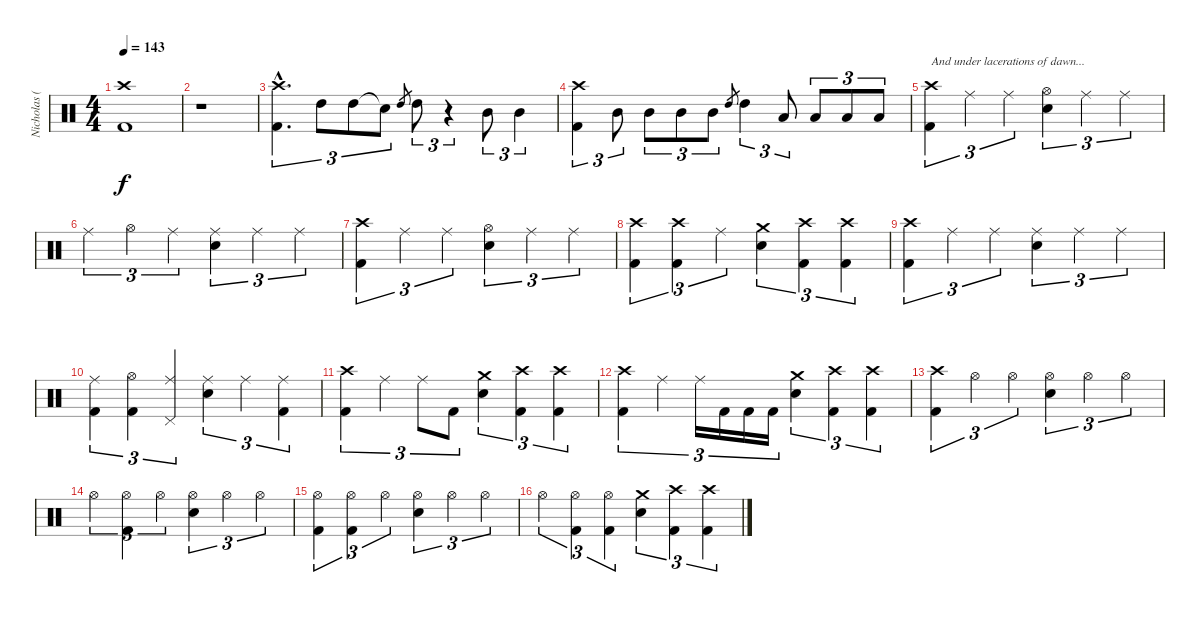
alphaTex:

\track ("Nicholas (Drums)" "Nicholas (") {instrument percussion}
\staff {score}
\articulation defaults
\ts (4 4)
\tempo 143
\clef neutral
\ks c
("Crash high (hit)" "Kick (hit) 2").1{dy f} |
r.1 |
("Crash high (hit)"{hac} "Kick (hit) 2"{hac}).4{d tu (3 2)} "High Tom (hit)".8{tu (3 2)} "High Tom (hit)".8{tu (3 2)} "Snare (hit)"{t}.8{tu (3 2)} "High Tom (hit)".8{gr} "High Tom (hit)".8{tu (3 2)} r.4{tu (3 2)} "Mid Tom (hit)".8{tu (3 2)} "Mid Tom (hit)".4{tu (3 2)} |
("Crash high (hit)" "Kick (hit) 2").4{tu (3 2)} "Mid Tom (hit)".8{tu (3 2)} "Mid Tom (hit)".8{tu (3 2)} "Mid Tom (hit)".8{tu (3 2)} "Mid Tom (hit)".8{tu (3 2)} "High Tom (hit)".8{gr} "High Tom (hit)".4{tu (3 2)} "Low Tom (hit)".8{tu (3 2)} "Low Tom (hit)".8{tu (3 2)} "Low Tom (hit)".8{tu (3 2)} "Low Tom (hit)".8{tu (3 2)} |
("Crash high (hit)" "Kick (hit) 2").4{tu (3 2) txt "And under lacerations of dawn..."} "Ride (middle)".4{tu (3 2)} "Ride (middle)".4{tu (3 2)} ("Hi-Hat (open)" "Electric Snare (hit)").4{tu (3 2)} "Ride (middle)".4{tu (3 2)} "Ride (middle)".4{tu (3 2)} |
"Ride (middle)".4{tu (3 2)} "Hi-Hat (open)".4{tu (3 2)} "Ride (middle)".4{tu (3 2)} ("Ride (middle)" "Electric Snare (hit)").4{tu (3 2)} "Ride (middle)".4{tu (3 2)} "Ride (middle)".4{tu (3 2)} |
("Crash high (hit)" "Kick (hit) 2").4{tu (3 2)} "Ride (middle)".4{tu (3 2)} "Ride (middle)".4{tu (3 2)} ("Hi-Hat (open)" "Electric Snare (hit)").4{tu (3 2)} "Ride (middle)".4{tu (3 2)} "Ride (middle)".4{tu (3 2)} |
("Crash high (hit)" "Kick (hit) 2").4{tu (3 2)} ("Crash high (hit)" "Kick (hit) 2").4{tu (3 2)} "Ride (middle)".4{tu (3 2)} ("Crash medium (hit)" "Electric Snare (hit)").4{tu (3 2)} ("Crash high (hit)" "Kick (hit) 2").4{tu (3 2)} ("Crash high (hit)" "Kick (hit) 2").4{tu (3 2)} |
("Crash high (hit)" "Kick (hit) 2").4{tu (3 2)} "Ride (middle)".4{tu (3 2)} "Ride (middle)".4{tu (3 2)} ("Ride (middle)" "Electric Snare (hit)").4{tu (3 2)} "Ride (middle)".4{tu (3 2)} "Ride (middle)".4{tu (3 2)} |
("Ride (middle)" "Kick (hit) 2").4{tu (3 2)} ("Hi-Hat (open)" "Kick (hit) 2").4{tu (3 2)} ("Ride (middle)" "Pedal Hi-Hat (hit)").4{tu (3 2)} ("Ride (middle)" "Electric Snare (hit)").4{tu (3 2)} "Ride (middle)".4{tu (3 2)} ("Ride (middle)" "Kick (hit) 2").4{tu (3 2)} |
("Crash high (hit)" "Kick (hit) 2").4{tu (3 2)} "Ride (middle)".4{tu (3 2)} "Ride (middle)".8{tu (3 2)} "Kick (hit) 2".8{tu (3 2)} ("Crash medium (hit)" "Electric Snare (hit)").4{tu (3 2)} ("Crash high (hit)" "Kick (hit) 2").4{tu (3 2)} ("Crash high (hit)" "Kick (hit) 2").4{tu (3 2)} |
("Crash high (hit)" "Kick (hit) 2").4{tu (3 2)} "Ride (middle)".4{tu (3 2)} "Ride (middle)".16{tu (3 2)} "Kick (hit) 2".16{tu (3 2)} "Kick (hit) 2".16{tu (3 2)} "Kick (hit) 2".16{tu (3 2)} ("Crash medium (hit)" "Electric Snare (hit)").4{tu (3 2)} ("Crash high (hit)" "Kick (hit) 2").4{tu (3 2)} ("Crash high (hit)" "Kick (hit) 2").4{tu (3 2)} |
("Crash high (hit)" "Kick (hit) 2").4{tu (3 2)} "Hi-Hat (open)".4{tu (3 2)} "Hi-Hat (open)".4{tu (3 2)} ("Hi-Hat (open)" "Electric Snare (hit)").4{tu (3 2)} "Hi-Hat (open)".4{tu (3 2)} "Hi-Hat (open)".4{tu (3 2)} |
"Hi-Hat (open)".4{tu (3 2)} ("Hi-Hat (open)" "Kick (hit) 2").4{tu (3 2)} "Hi-Hat (open)".4{tu (3 2)} ("Hi-Hat (open)" "Electric Snare (hit)").4{tu (3 2)} "Hi-Hat (open)".4{tu (3 2)} "Hi-Hat (open)".4{tu (3 2)} |
("Hi-Hat (open)" "Kick (hit) 2").4{tu (3 2)} ("Hi-Hat (open)" "Kick (hit) 2").4{tu (3 2)} "Hi-Hat (open)".4{tu (3 2)} ("Hi-Hat (open)" "Electric Snare (hit)").4{tu (3 2)} "Hi-Hat (open)".4{tu (3 2)} "Hi-Hat (open)".4{tu (3 2)} |
"Hi-Hat (open)".4{tu (3 2)} ("Hi-Hat (open)" "Kick (hit) 2").4{tu (3 2)} ("Hi-Hat (open)" "Kick (hit) 2").4{tu (3 2)} ("Crash medium (hit)" "Electric Snare (hit)").4{tu (3 2)} ("Crash high (hit)" "Kick (hit) 2").4{tu (3 2)} ("Crash high (hit)" "Kick (hit) 2").4{tu (3 2)}
